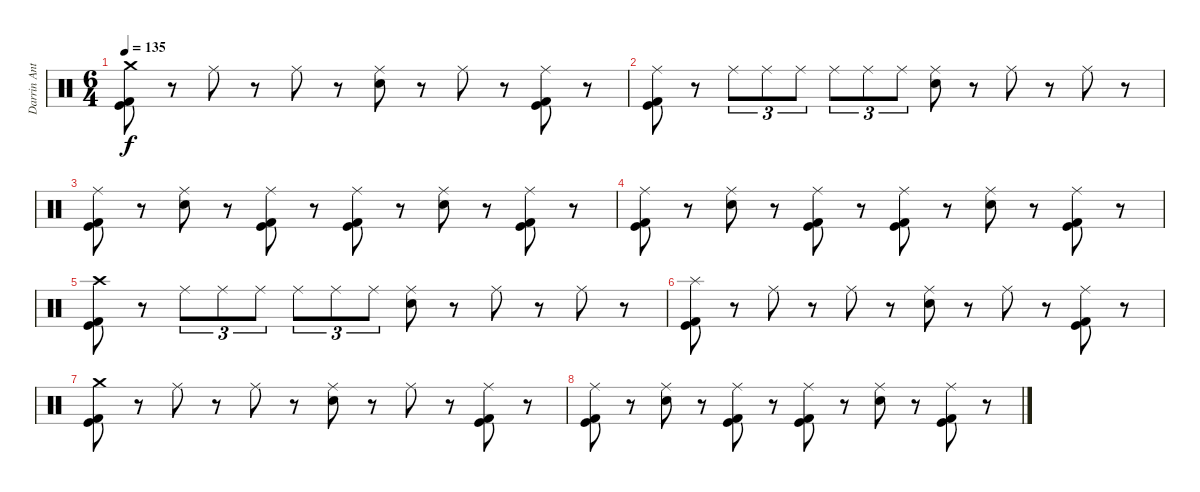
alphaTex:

\track ("Darrin Anthony" "Darrin Ant") {instrument percussion}
\staff {score}
\articulation defaults
\ts (6 4)
\tempo 135
\clef neutral
\ks c
("Crash medium (hit)" "Kick (hit)" "Kick (hit) 2").8{dy f} r.8 "Ride (middle)".8 r.8 "Ride (middle)".8 r.8 ("Ride (middle)" "Electric Snare (hit)").8 r.8 "Ride (middle)".8 r.8 ("Ride (middle)" "Kick (hit)" "Kick (hit) 2").8 r.8 |
("Ride (middle)" "Kick (hit)" "Kick (hit) 2").8 r.8 "Ride (middle)".8{tu (3 2)} "Ride (middle)".8{tu (3 2)} "Ride (middle)".8{tu (3 2)} "Ride (middle)".8{tu (3 2)} "Ride (middle)".8{tu (3 2)} "Ride (middle)".8{tu (3 2)} ("Ride (middle)" "Electric Snare (hit)").8 r.8 "Ride (middle)".8 r.8 "Ride (middle)".8 r.8 |
("Ride (middle)" "Kick (hit)" "Kick (hit) 2").8 r.8 ("Ride (middle)" "Electric Snare (hit)").8 r.8 ("Ride (middle)" "Kick (hit)" "Kick (hit) 2").8 r.8 ("Ride (middle)" "Kick (hit)" "Kick (hit) 2").8 r.8 ("Ride (middle)" "Electric Snare (hit)").8 r.8 ("Ride (middle)" "Kick (hit)" "Kick (hit) 2").8 r.8 |
("Ride (middle)" "Kick (hit)" "Kick (hit) 2").8 r.8 ("Ride (middle)" "Electric Snare (hit)").8 r.8 ("Ride (middle)" "Kick (hit)" "Kick (hit) 2").8 r.8 ("Ride (middle)" "Kick (hit)" "Kick (hit) 2").8 r.8 ("Ride (middle)" "Electric Snare (hit)").8 r.8 ("Ride (middle)" "Kick (hit)" "Kick (hit) 2").8 r.8 |
("Crash high (hit)" "Kick (hit)" "Kick (hit) 2").8 r.8 "Ride (middle)".8{tu (3 2)} "Ride (middle)".8{tu (3 2)} "Ride (middle)".8{tu (3 2)} "Ride (middle)".8{tu (3 2)} "Ride (middle)".8{tu (3 2)} "Ride (middle)".8{tu (3 2)} ("Ride (middle)" "Electric Snare (hit)").8 r.8 "Ride (middle)".8 r.8 "Ride (middle)".8 r.8 |
("Splash (hit)" "Kick (hit)" "Kick (hit) 2").8 r.8 "Ride (middle)".8 r.8 "Ride (middle)".8 r.8 ("Ride (middle)" "Electric Snare (hit)").8 r.8 "Ride (middle)".8 r.8 ("Ride (middle)" "Kick (hit)" "Kick (hit) 2").8 r.8 |
("Crash medium (hit)" "Kick (hit)" "Kick (hit) 2").8 r.8 "Ride (middle)".8 r.8 "Ride (middle)".8 r.8 ("Ride (middle)" "Electric Snare (hit)").8 r.8 "Ride (middle)".8 r.8 ("Ride (middle)" "Kick (hit)" "Kick (hit) 2").8 r.8 |
("Ride (middle)" "Kick (hit)" "Kick (hit) 2").8 r.8 ("Ride (middle)" "Electric Snare (hit)").8 r.8 ("Ride (middle)" "Kick (hit)" "Kick (hit) 2").8 r.8 ("Ride (middle)" "Kick (hit)" "Kick (hit) 2").8 r.8 ("Ride (middle)" "Electric Snare (hit)").8 r.8 ("Ride (middle)" "Kick (hit)" "Kick (hit) 2").8 r.8
